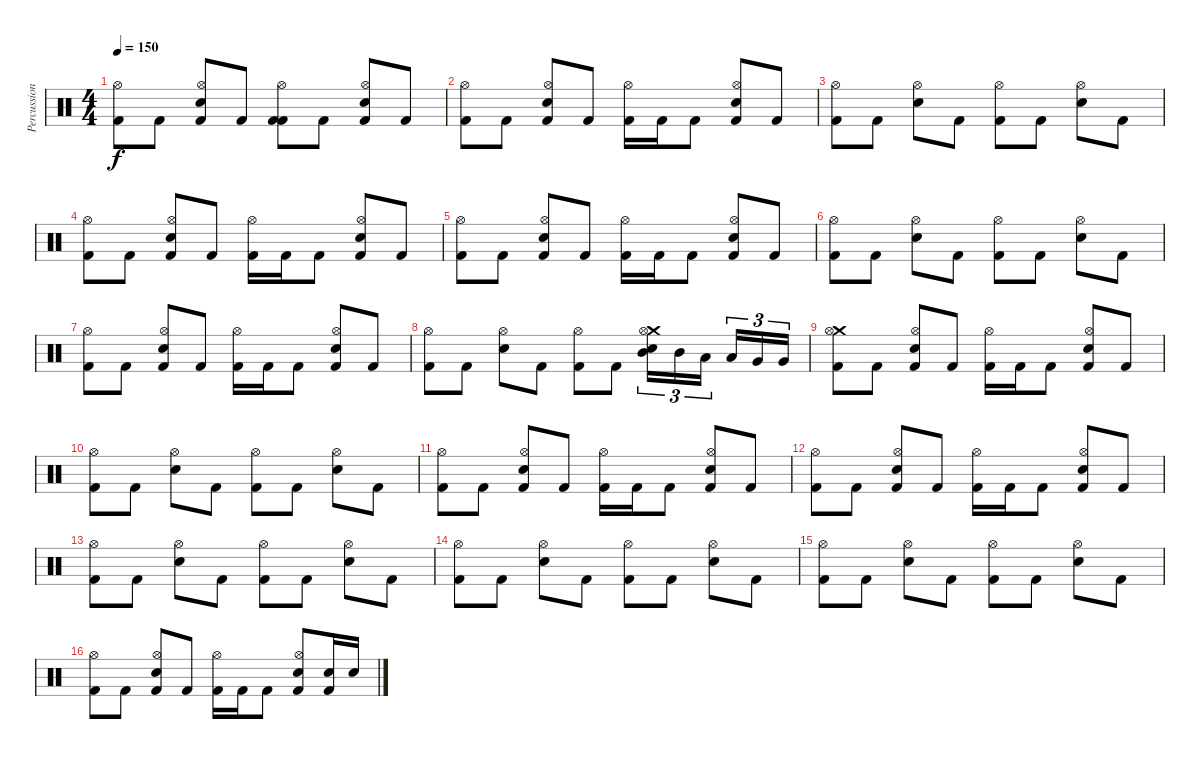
\track ("Percussion" "Percussion") {instrument percussion}
\staff {score}
\articulation defaults
\ts (4 4)
\tempo 150
\clef neutral
\ks c
("Kick (hit) 2" "Hi-Hat (open)").8{dy f} "Kick (hit) 2".8 ("Electric Snare (hit)" "Kick (hit) 2" "Hi-Hat (open)").8 "Kick (hit) 2".8 ("Kick (hit) 2" "Kick (hit) 2" "Hi-Hat (open)").8 "Kick (hit) 2".8 ("Electric Snare (hit)" "Kick (hit) 2" "Hi-Hat (open)").8 "Kick (hit) 2".8 |
("Kick (hit) 2" "Hi-Hat (open)").8 "Kick (hit) 2".8 ("Electric Snare (hit)" "Kick (hit) 2" "Hi-Hat (open)").8 "Kick (hit) 2".8 ("Kick (hit) 2" "Hi-Hat (open)").16 "Kick (hit) 2".16 "Kick (hit) 2".8 ("Electric Snare (hit)" "Kick (hit) 2" "Hi-Hat (open)").8 "Kick (hit) 2".8 |
("Kick (hit) 2" "Hi-Hat (open)").8 "Kick (hit) 2".8 ("Electric Snare (hit)" "Hi-Hat (open)").8 "Kick (hit) 2".8 ("Kick (hit) 2" "Hi-Hat (open)").8 "Kick (hit) 2".8 ("Electric Snare (hit)" "Hi-Hat (open)").8 "Kick (hit) 2".8 |
("Kick (hit) 2" "Hi-Hat (open)").8 "Kick (hit) 2".8 ("Electric Snare (hit)" "Kick (hit) 2" "Hi-Hat (open)").8 "Kick (hit) 2".8 ("Kick (hit) 2" "Hi-Hat (open)").16 "Kick (hit) 2".16 "Kick (hit) 2".8 ("Electric Snare (hit)" "Kick (hit) 2" "Hi-Hat (open)").8 "Kick (hit) 2".8 |
("Kick (hit) 2" "Hi-Hat (open)").8 "Kick (hit) 2".8 ("Electric Snare (hit)" "Kick (hit) 2" "Hi-Hat (open)").8 "Kick (hit) 2".8 ("Kick (hit) 2" "Hi-Hat (open)").16 "Kick (hit) 2".16 "Kick (hit) 2".8 ("Electric Snare (hit)" "Kick (hit) 2" "Hi-Hat (open)").8 "Kick (hit) 2".8 |
("Kick (hit) 2" "Hi-Hat (open)").8 "Kick (hit) 2".8 ("Electric Snare (hit)" "Hi-Hat (open)").8 "Kick (hit) 2".8 ("Kick (hit) 2" "Hi-Hat (open)").8 "Kick (hit) 2".8 ("Electric Snare (hit)" "Hi-Hat (open)").8 "Kick (hit) 2".8 |
("Kick (hit) 2" "Hi-Hat (open)").8 "Kick (hit) 2".8 ("Electric Snare (hit)" "Kick (hit) 2" "Hi-Hat (open)").8 "Kick (hit) 2".8 ("Kick (hit) 2" "Hi-Hat (open)").16 "Kick (hit) 2".16 "Kick (hit) 2".8 ("Electric Snare (hit)" "Kick (hit) 2" "Hi-Hat (open)").8 "Kick (hit) 2".8 |
("Kick (hit) 2" "Hi-Hat (open)").8 "Kick (hit) 2".8 ("Electric Snare (hit)" "Hi-Hat (open)").8 "Kick (hit) 2".8 ("Kick (hit) 2" "Hi-Hat (open)").8 "Kick (hit) 2".8 ("Electric Snare (hit)" "Crash medium (hit)" "Hi-Hat (open)" "Mid Tom (hit)").16{tu (3 2)} "Mid Tom (hit)".16{tu (3 2)} "Low Tom (hit)".16{tu (3 2)} "Low Tom (hit)".16{tu (3 2)} "Very Low Tom (hit)".16{tu (3 2)} "Very Low Tom (hit)".16{tu (3 2)} |
("Kick (hit) 2" "Crash medium (hit)" "Hi-Hat (open)").8 "Kick (hit) 2".8 ("Electric Snare (hit)" "Kick (hit) 2" "Hi-Hat (open)").8 "Kick (hit) 2".8 ("Kick (hit) 2" "Hi-Hat (open)").16 "Kick (hit) 2".16 "Kick (hit) 2".8 ("Electric Snare (hit)" "Kick (hit) 2" "Hi-Hat (open)").8 "Kick (hit) 2".8 |
("Kick (hit) 2" "Hi-Hat (open)").8 "Kick (hit) 2".8 ("Electric Snare (hit)" "Hi-Hat (open)").8 "Kick (hit) 2".8 ("Kick (hit) 2" "Hi-Hat (open)").8 "Kick (hit) 2".8 ("Electric Snare (hit)" "Hi-Hat (open)").8 "Kick (hit) 2".8 |
("Kick (hit) 2" "Hi-Hat (open)").8 "Kick (hit) 2".8 ("Electric Snare (hit)" "Kick (hit) 2" "Hi-Hat (open)").8 "Kick (hit) 2".8 ("Kick (hit) 2" "Hi-Hat (open)").16 "Kick (hit) 2".16 "Kick (hit) 2".8 ("Electric Snare (hit)" "Kick (hit) 2" "Hi-Hat (open)").8 "Kick (hit) 2".8 |
("Kick (hit) 2" "Hi-Hat (open)").8 "Kick (hit) 2".8 ("Electric Snare (hit)" "Kick (hit) 2" "Hi-Hat (open)").8 "Kick (hit) 2".8 ("Kick (hit) 2" "Hi-Hat (open)").16 "Kick (hit) 2".16 "Kick (hit) 2".8 ("Electric Snare (hit)" "Kick (hit) 2" "Hi-Hat (open)").8 "Kick (hit) 2".8 |
("Kick (hit) 2" "Hi-Hat (open)").8 "Kick (hit) 2".8 ("Electric Snare (hit)" "Hi-Hat (open)").8 "Kick (hit) 2".8 ("Kick (hit) 2" "Hi-Hat (open)").8 "Kick (hit) 2".8 ("Electric Snare (hit)" "Hi-Hat (open)").8 "Kick (hit) 2".8 |
("Kick (hit) 2" "Hi-Hat (open)").8 "Kick (hit) 2".8 ("Electric Snare (hit)" "Hi-Hat (open)").8 "Kick (hit) 2".8 ("Kick (hit) 2" "Hi-Hat (open)").8 "Kick (hit) 2".8 ("Electric Snare (hit)" "Hi-Hat (open)").8 "Kick (hit) 2".8 |
("Kick (hit) 2" "Hi-Hat (open)").8 "Kick (hit) 2".8 ("Electric Snare (hit)" "Hi-Hat (open)").8 "Kick (hit) 2".8 ("Kick (hit) 2" "Hi-Hat (open)").8 "Kick (hit) 2".8 ("Electric Snare (hit)" "Hi-Hat (open)").8 "Kick (hit) 2".8 |
("Kick (hit) 2" "Hi-Hat (open)").8 "Kick (hit) 2".8 ("Electric Snare (hit)" "Kick (hit) 2" "Hi-Hat (open)").8 "Kick (hit) 2".8 ("Kick (hit) 2" "Hi-Hat (open)").16 "Kick (hit) 2".16 "Kick (hit) 2".8 ("Electric Snare (hit)" "Kick (hit) 2" "Hi-Hat (open)").8 ("Kick (hit) 2" "Electric Snare (hit)").16 "Electric Snare (hit)".16
